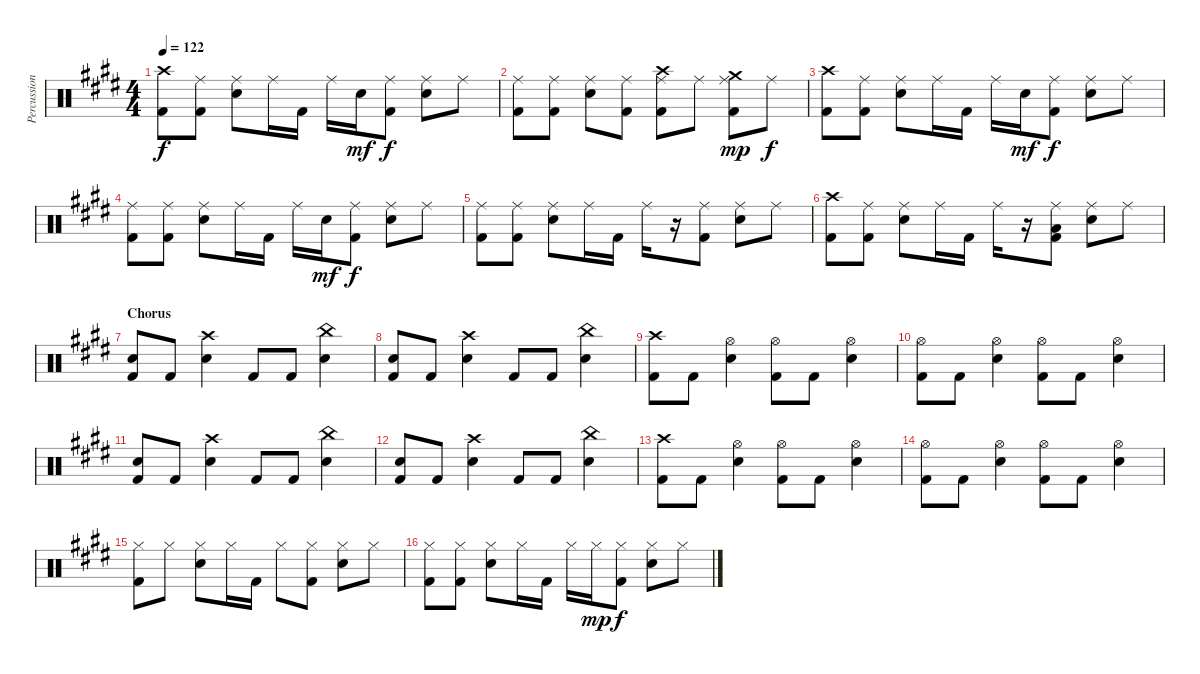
\track ("Percussion" "Percussion") {instrument percussion}
\staff {score}
\articulation defaults
\ts (4 4)
\tempo 122
\clef neutral
\ks e
("Crash high (hit)" "Kick (hit) 2").8{dy f} ("Ride (middle)" "Kick (hit) 2").8 ("Ride (middle)" "Snare (hit) 2").8 "Ride (middle)".16 "Kick (hit) 2".16 "Ride (middle)".16 "Snare (hit) 2".16{dy mf} ("Ride (middle)" "Kick (hit) 2").8{dy f} ("Ride (middle)" "Snare (hit) 2").8 "Ride (middle)".8 |
("Ride (middle)" "Kick (hit) 2").8 ("Ride (middle)" "Kick (hit) 2").8 ("Ride (middle)" "Snare (hit) 2").8 ("Ride (middle)" "Kick (hit) 2").8 ("Crash high (hit)" "Ride (middle)" "Kick (hit) 2").8 "Ride (middle)".8 ("Crash medium (hit)" "Ride (middle)" "Kick (hit) 2").8{dy mp} "Ride (middle)".8{dy f} |
("Crash high (hit)" "Kick (hit) 2").8 ("Ride (middle)" "Kick (hit) 2").8 ("Ride (middle)" "Snare (hit) 2").8 "Ride (middle)".16 "Kick (hit) 2".16 "Ride (middle)".16 "Snare (hit) 2".16{dy mf} ("Ride (middle)" "Kick (hit) 2").8{dy f} ("Ride (middle)" "Snare (hit) 2").8 "Ride (middle)".8 |
("Ride (middle)" "Kick (hit) 2").8 ("Ride (middle)" "Kick (hit) 2").8 ("Ride (middle)" "Snare (hit) 2").8 "Ride (middle)".16 "Kick (hit) 2".16 "Ride (middle)".16 "Snare (hit) 2".16{dy mf} ("Ride (middle)" "Kick (hit) 2").8{dy f} ("Ride (middle)" "Snare (hit) 2").8 "Ride (middle)".8 |
("Ride (middle)" "Kick (hit) 2").8 ("Ride (middle)" "Kick (hit) 2").8 ("Ride (middle)" "Snare (hit) 2").8 "Ride (middle)".16 "Kick (hit) 2".16 "Ride (middle)".16 r.16 ("Ride (middle)" "Kick (hit) 2").8 ("Ride (middle)" "Snare (hit) 2").8 "Ride (middle)".8 |
("Crash high (hit)" "Kick (hit) 2").8 ("Ride (middle)" "Kick (hit) 2").8 ("Ride (middle)" "Snare (hit) 2").8 "Ride (middle)".16 "Kick (hit) 2".16 "Ride (middle)".16 r.16 ("Ride (middle)" "Low Tom (hit)" "Kick (hit) 2").8 ("Ride (middle)" "Snare (hit) 2").8 "Ride (middle)".8 |
\section ("" "Chorus")
("Snare (hit) 2" "Kick (hit) 2").8 "Kick (hit) 2".8 ("Crash high (hit)" "Snare (hit) 2").4 "Kick (hit) 2".8 "Kick (hit) 2".8 ("China (hit)" "Snare (hit) 2").4 |
("Snare (hit) 2" "Kick (hit) 2").8 "Kick (hit) 2".8 ("Crash high (hit)" "Snare (hit) 2").4 "Kick (hit) 2".8 "Kick (hit) 2".8 ("China (hit)" "Snare (hit) 2").4 |
("Crash high (hit)" "Kick (hit) 2").8 "Kick (hit) 2".8 ("Hi-Hat (open)" "Snare (hit) 2").4 ("Hi-Hat (open)" "Kick (hit) 2").8 "Kick (hit) 2".8 ("Hi-Hat (open)" "Snare (hit) 2").4 |
("Hi-Hat (open)" "Kick (hit) 2").8 "Kick (hit) 2".8 ("Hi-Hat (open)" "Snare (hit) 2").4 ("Hi-Hat (open)" "Kick (hit) 2").8 "Kick (hit) 2".8 ("Hi-Hat (open)" "Snare (hit) 2").4 |
("Snare (hit) 2" "Kick (hit) 2").8 "Kick (hit) 2".8 ("Crash high (hit)" "Snare (hit) 2").4 "Kick (hit) 2".8 "Kick (hit) 2".8 ("China (hit)" "Snare (hit) 2").4 |
("Snare (hit) 2" "Kick (hit) 2").8 "Kick (hit) 2".8 ("Crash high (hit)" "Snare (hit) 2").4 "Kick (hit) 2".8 "Kick (hit) 2".8 ("China (hit)" "Snare (hit) 2").4 |
("Crash high (hit)" "Kick (hit) 2").8 "Kick (hit) 2".8 ("Hi-Hat (open)" "Snare (hit) 2").4 ("Hi-Hat (open)" "Kick (hit) 2").8 "Kick (hit) 2".8 ("Hi-Hat (open)" "Snare (hit) 2").4 |
("Hi-Hat (open)" "Kick (hit) 2").8 "Kick (hit) 2".8 ("Hi-Hat (open)" "Snare (hit) 2").4 ("Hi-Hat (open)" "Kick (hit) 2").8 "Kick (hit) 2".8 ("Hi-Hat (open)" "Snare (hit) 2").4 |
("Hi-Hat (closed)" "Kick (hit) 2").8 "Hi-Hat (closed)".8 ("Hi-Hat (closed)" "Snare (hit) 2").8 "Hi-Hat (closed)".16 "Kick (hit) 2".16 "Hi-Hat (closed)".8 ("Hi-Hat (closed)" "Kick (hit) 2").8 ("Hi-Hat (closed)" "Snare (hit) 2").8 "Hi-Hat (closed)".8 |
("Hi-Hat (closed)" "Kick (hit) 2").8 ("Hi-Hat (closed)" "Kick (hit) 2").8 ("Hi-Hat (closed)" "Snare (hit) 2").8 "Hi-Hat (closed)".16 "Kick (hit) 2".16 "Hi-Hat (closed)".16 "Hi-Hat (closed)".16{dy mp} ("Hi-Hat (closed)" "Kick (hit) 2").8{dy f} ("Hi-Hat (closed)" "Snare (hit) 2").8 "Hi-Hat (closed)".8
